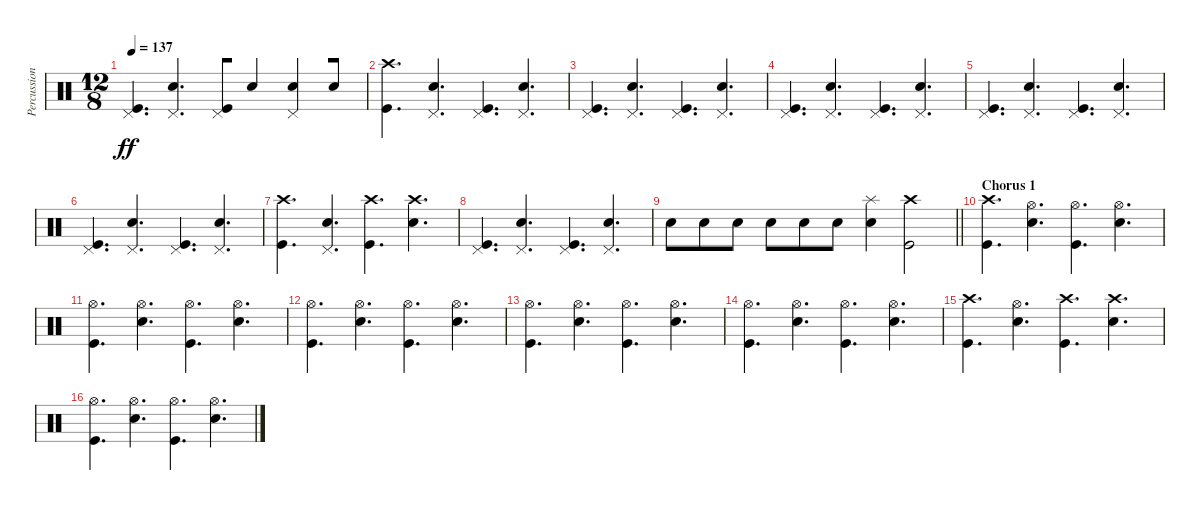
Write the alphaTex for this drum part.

\track ("Percussion" "Percussion") {instrument percussion bank 255}
\staff {score}
\articulation defaults
\ts (12 8)
\tempo 137
\clef neutral
\ks c
("Kick (hit)" "Pedal Hi-Hat (hit)").4{d dy ff} ("Pedal Hi-Hat (hit)" "Electric Snare (hit)").4{d beam merge} ("Kick (hit)" "Pedal Hi-Hat (hit)").8{beam merge} "Electric Snare (hit)".4{beam merge} ("Pedal Hi-Hat (hit)" "Electric Snare (hit)").4{beam merge} "Electric Snare (hit)".8 |
("Kick (hit)" "Crash high (hit)").4{d} ("Pedal Hi-Hat (hit)" "Electric Snare (hit)").4{d} ("Pedal Hi-Hat (hit)" "Kick (hit)").4{d} ("Pedal Hi-Hat (hit)" "Electric Snare (hit)").4{d} |
("Kick (hit)" "Pedal Hi-Hat (hit)").4{d} ("Pedal Hi-Hat (hit)" "Electric Snare (hit)").4{d} ("Pedal Hi-Hat (hit)" "Kick (hit)").4{d} ("Pedal Hi-Hat (hit)" "Electric Snare (hit)").4{d} |
("Kick (hit)" "Pedal Hi-Hat (hit)").4{d} ("Pedal Hi-Hat (hit)" "Electric Snare (hit)").4{d} ("Pedal Hi-Hat (hit)" "Kick (hit)").4{d} ("Pedal Hi-Hat (hit)" "Electric Snare (hit)").4{d} |
("Kick (hit)" "Pedal Hi-Hat (hit)").4{d} ("Pedal Hi-Hat (hit)" "Electric Snare (hit)").4{d} ("Pedal Hi-Hat (hit)" "Kick (hit)").4{d} ("Pedal Hi-Hat (hit)" "Electric Snare (hit)").4{d} |
("Kick (hit)" "Pedal Hi-Hat (hit)").4{d} ("Pedal Hi-Hat (hit)" "Electric Snare (hit)").4{d} ("Pedal Hi-Hat (hit)" "Kick (hit)").4{d} ("Pedal Hi-Hat (hit)" "Electric Snare (hit)").4{d} |
("Kick (hit)" "Crash high (hit)").4{d} ("Pedal Hi-Hat (hit)" "Electric Snare (hit)").4{d} ("Crash high (hit)" "Kick (hit)").4{d} ("Crash high (hit)" "Electric Snare (hit)").4{d} |
("Kick (hit)" "Pedal Hi-Hat (hit)").4{d} ("Pedal Hi-Hat (hit)" "Electric Snare (hit)").4{d} ("Pedal Hi-Hat (hit)" "Kick (hit)").4{d} ("Pedal Hi-Hat (hit)" "Electric Snare (hit)").4{d} |
\barLineRight lightlight "Electric Snare (hit)".8{beam merge} "Electric Snare (hit)".8 "Electric Snare (hit)".8 "Electric Snare (hit)".8{beam merge} "Electric Snare (hit)".8 "Electric Snare (hit)".8
("Splash (hit)" "Electric Snare (hit)").4 ("Crash high (hit)" "Kick (hit)").2 |
\section ("" "Chorus 1")
("Kick (hit)" "Crash high (hit)").4{d} ("Hi-Hat (open)" "Electric Snare (hit)").4{d} ("Hi-Hat (open)" "Kick (hit)").4{d} ("Hi-Hat (open)" "Electric Snare (hit)").4{d} |
("Kick (hit)" "Hi-Hat (open)").4{d} ("Hi-Hat (open)" "Electric Snare (hit)").4{d} ("Hi-Hat (open)" "Kick (hit)").4{d} ("Hi-Hat (open)" "Electric Snare (hit)").4{d} |
("Kick (hit)" "Hi-Hat (open)").4{d} ("Hi-Hat (open)" "Electric Snare (hit)").4{d} ("Hi-Hat (open)" "Kick (hit)").4{d} ("Hi-Hat (open)" "Electric Snare (hit)").4{d} |
("Kick (hit)" "Hi-Hat (open)").4{d} ("Hi-Hat (open)" "Electric Snare (hit)").4{d} ("Hi-Hat (open)" "Kick (hit)").4{d} ("Hi-Hat (open)" "Electric Snare (hit)").4{d} |
("Kick (hit)" "Hi-Hat (open)").4{d} ("Hi-Hat (open)" "Electric Snare (hit)").4{d} ("Hi-Hat (open)" "Kick (hit)").4{d} ("Hi-Hat (open)" "Electric Snare (hit)").4{d} |
("Kick (hit)" "Crash high (hit)").4{d} ("Hi-Hat (open)" "Electric Snare (hit)").4{d} ("Crash high (hit)" "Kick (hit)").4{d} ("Crash high (hit)" "Electric Snare (hit)").4{d} |
("Kick (hit)" "Hi-Hat (open)").4{d} ("Hi-Hat (open)" "Electric Snare (hit)").4{d} ("Hi-Hat (open)" "Kick (hit)").4{d} ("Hi-Hat (open)" "Electric Snare (hit)").4{d}
